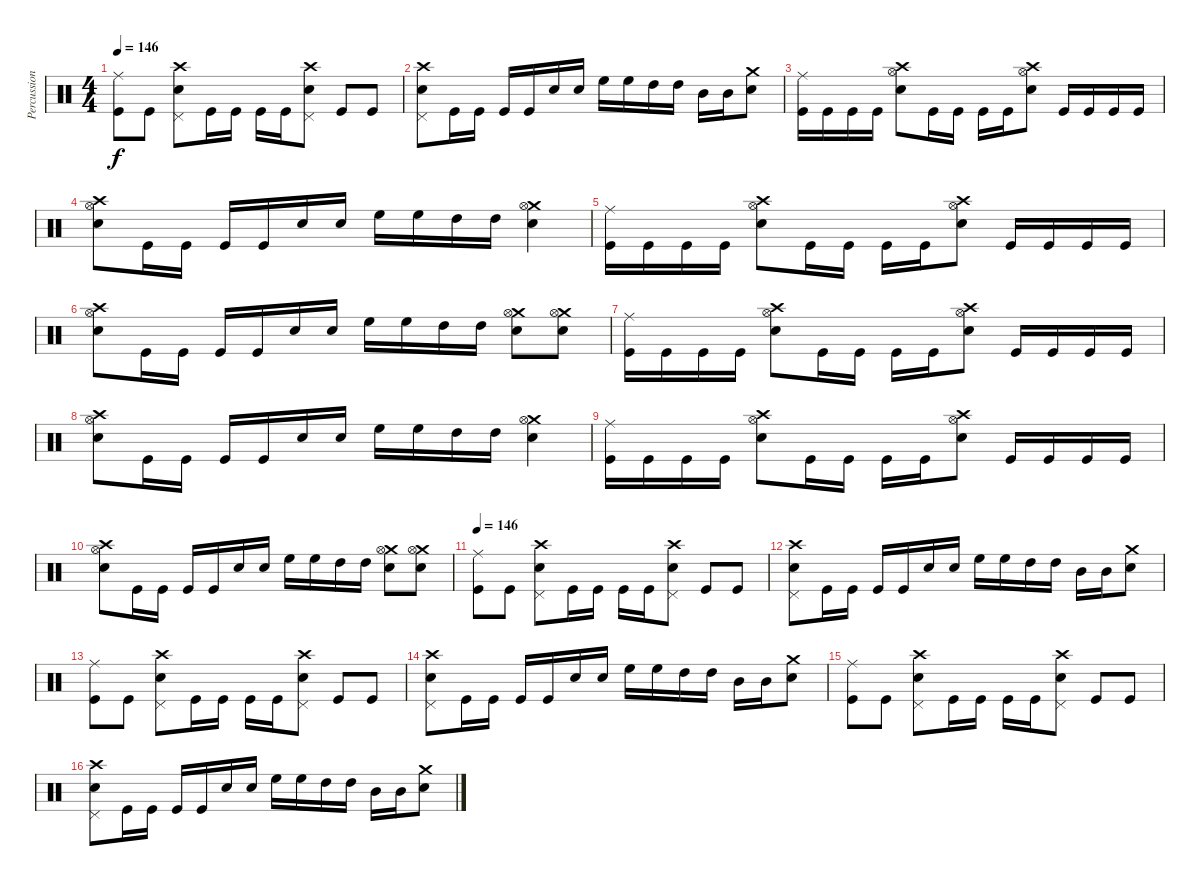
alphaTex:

\track ("Percussion" "Percussion") {instrument percussion}
\staff {score}
\articulation defaults
\ts (4 4)
\tempo 146
\clef neutral
\ks c
("Ride (middle)" "Kick (hit)").8{dy f} "Kick (hit)".8 ("Crash high (hit)" "Pedal Hi-Hat (hit)" "Snare (hit) 2").8 "Kick (hit)".16 "Kick (hit)".16 "Kick (hit)".16 "Kick (hit)".16 ("Crash high (hit)" "Pedal Hi-Hat (hit)" "Snare (hit) 2").8 "Kick (hit)".8 "Kick (hit)".8 |
("Crash high (hit)" "Pedal Hi-Hat (hit)" "Snare (hit) 2").8 "Kick (hit)".16 "Kick (hit)".16 "Kick (hit)".16 "Kick (hit)".16 "Snare (hit) 2".16 "Snare (hit) 2".16 "High Floor Tom (hit)".16 "High Floor Tom (hit)".16 "High Tom (hit)".16 "High Tom (hit)".16 "Mid Tom (hit)".16 "Mid Tom (hit)".16 ("Crash medium (hit)" "Snare (hit) 2").8 |
("Ride (middle)" "Kick (hit)").16 "Kick (hit)".16 "Kick (hit)".16 "Kick (hit)".16 ("Crash high (hit)" "Hi-Hat (open)" "Snare (hit) 2").8 "Kick (hit)".16 "Kick (hit)".16 "Kick (hit)".16 "Kick (hit)".16 ("Crash high (hit)" "Hi-Hat (open)" "Snare (hit) 2").8 "Kick (hit)".16 "Kick (hit)".16 "Kick (hit)".16 "Kick (hit)".16 |
("Crash high (hit)" "Hi-Hat (open)" "Snare (hit) 2").8 "Kick (hit)".16 "Kick (hit)".16 "Kick (hit)".16 "Kick (hit)".16 "Snare (hit) 2".16 "Snare (hit) 2".16 "High Floor Tom (hit)".16 "High Floor Tom (hit)".16 "High Tom (hit)".16 "High Tom (hit)".16 ("Crash medium (hit)" "Hi-Hat (open)" "Snare (hit) 2").4 |
("Ride (middle)" "Kick (hit)").16 "Kick (hit)".16 "Kick (hit)".16 "Kick (hit)".16 ("Crash high (hit)" "Hi-Hat (open)" "Snare (hit) 2").8 "Kick (hit)".16 "Kick (hit)".16 "Kick (hit)".16 "Kick (hit)".16 ("Crash high (hit)" "Hi-Hat (open)" "Snare (hit) 2").8 "Kick (hit)".16 "Kick (hit)".16 "Kick (hit)".16 "Kick (hit)".16 |
("Crash high (hit)" "Hi-Hat (open)" "Snare (hit) 2").8 "Kick (hit)".16 "Kick (hit)".16 "Kick (hit)".16 "Kick (hit)".16 "Snare (hit) 2".16 "Snare (hit) 2".16 "High Floor Tom (hit)".16 "High Floor Tom (hit)".16 "High Tom (hit)".16 "High Tom (hit)".16 ("Crash medium (hit)" "Hi-Hat (open)" "Snare (hit) 2").8 ("Crash medium (hit)" "Hi-Hat (open)" "Snare (hit) 2").8 |
("Ride (middle)" "Kick (hit)").16 "Kick (hit)".16 "Kick (hit)".16 "Kick (hit)".16 ("Crash high (hit)" "Hi-Hat (open)" "Snare (hit) 2").8 "Kick (hit)".16 "Kick (hit)".16 "Kick (hit)".16 "Kick (hit)".16 ("Crash high (hit)" "Hi-Hat (open)" "Snare (hit) 2").8 "Kick (hit)".16 "Kick (hit)".16 "Kick (hit)".16 "Kick (hit)".16 |
("Crash high (hit)" "Hi-Hat (open)" "Snare (hit) 2").8 "Kick (hit)".16 "Kick (hit)".16 "Kick (hit)".16 "Kick (hit)".16 "Snare (hit) 2".16 "Snare (hit) 2".16 "High Floor Tom (hit)".16 "High Floor Tom (hit)".16 "High Tom (hit)".16 "High Tom (hit)".16 ("Crash medium (hit)" "Hi-Hat (open)" "Snare (hit) 2").4 |
("Ride (middle)" "Kick (hit)").16 "Kick (hit)".16 "Kick (hit)".16 "Kick (hit)".16 ("Crash high (hit)" "Hi-Hat (open)" "Snare (hit) 2").8 "Kick (hit)".16 "Kick (hit)".16 "Kick (hit)".16 "Kick (hit)".16 ("Crash high (hit)" "Hi-Hat (open)" "Snare (hit) 2").8 "Kick (hit)".16 "Kick (hit)".16 "Kick (hit)".16 "Kick (hit)".16 |
("Crash high (hit)" "Hi-Hat (open)" "Snare (hit) 2").8 "Kick (hit)".16 "Kick (hit)".16 "Kick (hit)".16 "Kick (hit)".16 "Snare (hit) 2".16 "Snare (hit) 2".16 "High Floor Tom (hit)".16 "High Floor Tom (hit)".16 "High Tom (hit)".16 "High Tom (hit)".16 ("Crash medium (hit)" "Hi-Hat (open)" "Snare (hit) 2").8 ("Crash medium (hit)" "Hi-Hat (open)" "Snare (hit) 2").8 |
\tempo 146
("Ride (middle)" "Kick (hit)").8 "Kick (hit)".8 ("Crash high (hit)" "Pedal Hi-Hat (hit)" "Snare (hit) 2").8 "Kick (hit)".16 "Kick (hit)".16 "Kick (hit)".16 "Kick (hit)".16 ("Crash high (hit)" "Pedal Hi-Hat (hit)" "Snare (hit) 2").8 "Kick (hit)".8 "Kick (hit)".8 |
("Crash high (hit)" "Pedal Hi-Hat (hit)" "Snare (hit) 2").8 "Kick (hit)".16 "Kick (hit)".16 "Kick (hit)".16 "Kick (hit)".16 "Snare (hit) 2".16 "Snare (hit) 2".16 "High Floor Tom (hit)".16 "High Floor Tom (hit)".16 "High Tom (hit)".16 "High Tom (hit)".16 "Mid Tom (hit)".16 "Mid Tom (hit)".16 ("Crash medium (hit)" "Snare (hit) 2").8 |
("Ride (middle)" "Kick (hit)").8 "Kick (hit)".8 ("Crash high (hit)" "Pedal Hi-Hat (hit)" "Snare (hit) 2").8 "Kick (hit)".16 "Kick (hit)".16 "Kick (hit)".16 "Kick (hit)".16 ("Crash high (hit)" "Pedal Hi-Hat (hit)" "Snare (hit) 2").8 "Kick (hit)".8 "Kick (hit)".8 |
("Crash high (hit)" "Pedal Hi-Hat (hit)" "Snare (hit) 2").8 "Kick (hit)".16 "Kick (hit)".16 "Kick (hit)".16 "Kick (hit)".16 "Snare (hit) 2".16 "Snare (hit) 2".16 "High Floor Tom (hit)".16 "High Floor Tom (hit)".16 "High Tom (hit)".16 "High Tom (hit)".16 "Mid Tom (hit)".16 "Mid Tom (hit)".16 ("Crash medium (hit)" "Snare (hit) 2").8 |
("Ride (middle)" "Kick (hit)").8 "Kick (hit)".8 ("Crash high (hit)" "Pedal Hi-Hat (hit)" "Snare (hit) 2").8 "Kick (hit)".16 "Kick (hit)".16 "Kick (hit)".16 "Kick (hit)".16 ("Crash high (hit)" "Pedal Hi-Hat (hit)" "Snare (hit) 2").8 "Kick (hit)".8 "Kick (hit)".8 |
("Crash high (hit)" "Pedal Hi-Hat (hit)" "Snare (hit) 2").8 "Kick (hit)".16 "Kick (hit)".16 "Kick (hit)".16 "Kick (hit)".16 "Snare (hit) 2".16 "Snare (hit) 2".16 "High Floor Tom (hit)".16 "High Floor Tom (hit)".16 "High Tom (hit)".16 "High Tom (hit)".16 "Mid Tom (hit)".16 "Mid Tom (hit)".16 ("Crash medium (hit)" "Snare (hit) 2").8
